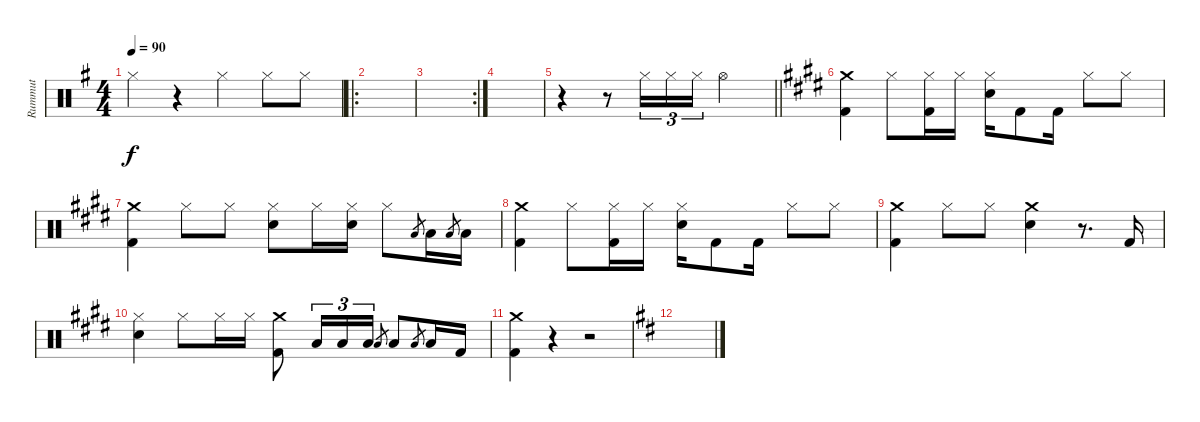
\track ("Rummut" "Rummut") {instrument percussion}
\staff {score}
\articulation defaults
\ts (4 4)
\tempo 90
\clef neutral
\ks g "Hi-Hat (closed)".4{dy f}
r.4 "Hi-Hat (closed)".4 "Hi-Hat (closed)".8 "Hi-Hat (closed)".8 |
\ro
|
\rc 2
|
|
\barLineRight lightlight
r.4 r.8 "Hi-Hat (closed)".16{tu (3 2)} "Hi-Hat (closed)".16{tu (3 2)} "Hi-Hat (closed)".16{tu (3 2)} "Hi-Hat (open)".2 |
\ks e
("Crash medium (hit)" "Kick (hit) 2").4 "Hi-Hat (closed)".8 ("Hi-Hat (closed)" "Kick (hit) 2").16 "Hi-Hat (closed)".16 ("Hi-Hat (closed)" "Snare (hit) 2").16 "Kick (hit) 2".8 "Kick (hit) 2".16 "Hi-Hat (closed)".8 "Hi-Hat (closed)".8 |
("Crash medium (hit)" "Kick (hit) 2").4 "Hi-Hat (closed)".8 "Hi-Hat (closed)".8 ("Hi-Hat (closed)" "Snare (hit) 2").8 "Hi-Hat (closed)".16 ("Hi-Hat (closed)" "Snare (hit) 2").16 "Hi-Hat (closed)".8 "Low Tom (hit)".8{gr} "Low Tom (hit)".16 "Low Tom (hit)".8{gr} "Low Tom (hit)".16 |
("Crash medium (hit)" "Kick (hit) 2").4 "Hi-Hat (closed)".8 ("Hi-Hat (closed)" "Kick (hit) 2").16 "Hi-Hat (closed)".16 ("Hi-Hat (closed)" "Snare (hit) 2").16 "Kick (hit) 2".8 "Kick (hit) 2".16 "Hi-Hat (closed)".8 "Hi-Hat (closed)".8 |
("Crash medium (hit)" "Kick (hit) 2").4 "Hi-Hat (closed)".8 "Hi-Hat (closed)".8 ("Crash medium (hit)" "Snare (hit) 2").4 r.8{d} "Kick (hit) 2".16 |
("Hi-Hat (closed)" "Snare (hit) 2").4 "Hi-Hat (closed)".8 "Hi-Hat (closed)".16 "Hi-Hat (closed)".16 ("Crash medium (hit)" "Kick (hit) 2").8 "Low Tom (hit)".16{tu (3 2)} "Low Tom (hit)".16{tu (3 2)} "Low Tom (hit)".16{tu (3 2)} "Low Tom (hit)".8{gr} "Low Tom (hit)".8 "Low Tom (hit)".8{gr} "Low Tom (hit)".16 "Kick (hit) 2".16 |
("Crash medium (hit)" "Kick (hit) 2").4 r.4 r.2 |
\ks d
